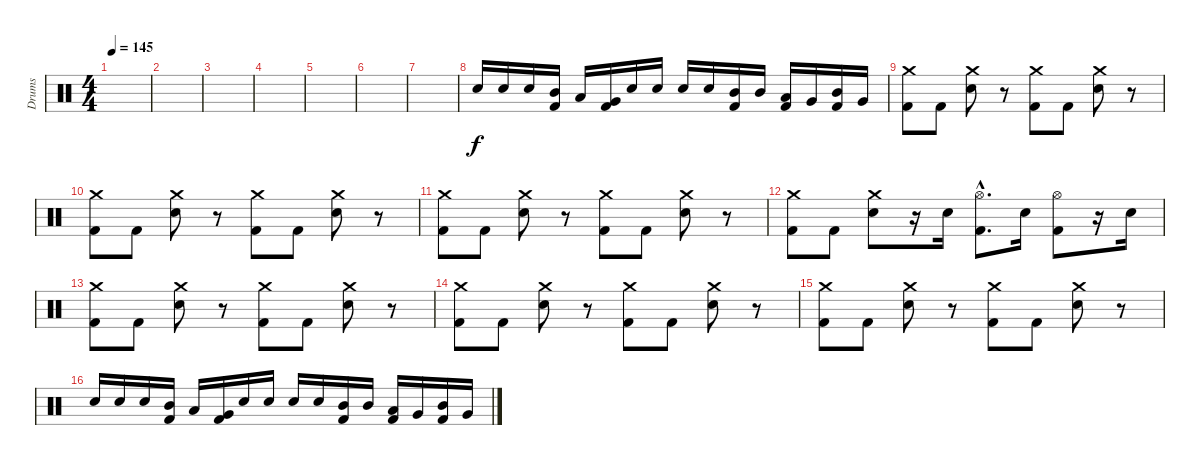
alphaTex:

\track ("Drums" "Drums") {instrument percussion}
\staff {score}
\articulation defaults
\ts (4 4)
\tempo 145
\clef neutral
\ks c
|
|
|
|
|
|
|
"Snare (hit) 2".16 "Snare (hit) 2".16 "Snare (hit) 2".16 ("Mid Tom (hit)" "Kick (hit) 2").16 "Low Tom (hit)".16 ("Very Low Tom (hit)" "Kick (hit) 2").16 "Snare (hit) 2".16 "Snare (hit) 2".16 "Snare (hit) 2".16 "Snare (hit) 2".16 ("Mid Tom (hit)" "Kick (hit) 2").16 "Mid Tom (hit)".16 ("Low Tom (hit)" "Kick (hit) 2").16 "Very Low Tom (hit)".16 ("Mid Tom (hit)" "Kick (hit) 2").16 "Very Low Tom (hit)".16 |
("Crash medium (hit)" "Kick (hit) 2").8 "Kick (hit) 2".8 ("Crash medium (hit)" "Snare (hit) 2").8 r.8 ("Crash medium (hit)" "Kick (hit) 2").8 "Kick (hit) 2".8 ("Crash medium (hit)" "Snare (hit) 2").8 r.8 |
("Crash medium (hit)" "Kick (hit) 2").8 "Kick (hit) 2".8 ("Crash medium (hit)" "Snare (hit) 2").8 r.8 ("Crash medium (hit)" "Kick (hit) 2").8 "Kick (hit) 2".8 ("Crash medium (hit)" "Snare (hit) 2").8 r.8 |
("Crash medium (hit)" "Kick (hit) 2").8 "Kick (hit) 2".8 ("Crash medium (hit)" "Snare (hit) 2").8 r.8 ("Crash medium (hit)" "Kick (hit) 2").8 "Kick (hit) 2".8 ("Crash medium (hit)" "Snare (hit) 2").8 r.8 |
("Crash medium (hit)" "Kick (hit) 2").8 "Kick (hit) 2".8 ("Crash medium (hit)" "Snare (hit) 2").8 r.16 "Snare (hit) 2".16 ("Hi-Hat (open)"{hac} "Kick (hit) 2"{hac}).8{d} "Snare (hit) 2".16 ("Hi-Hat (open)" "Kick (hit) 2").8 r.16 "Snare (hit) 2".16 |
("Crash medium (hit)" "Kick (hit) 2").8 "Kick (hit) 2".8 ("Crash medium (hit)" "Snare (hit) 2").8 r.8 ("Crash medium (hit)" "Kick (hit) 2").8 "Kick (hit) 2".8 ("Crash medium (hit)" "Snare (hit) 2").8 r.8 |
("Crash medium (hit)" "Kick (hit) 2").8 "Kick (hit) 2".8 ("Crash medium (hit)" "Snare (hit) 2").8 r.8 ("Crash medium (hit)" "Kick (hit) 2").8 "Kick (hit) 2".8 ("Crash medium (hit)" "Snare (hit) 2").8 r.8 |
("Crash medium (hit)" "Kick (hit) 2").8 "Kick (hit) 2".8 ("Crash medium (hit)" "Snare (hit) 2").8 r.8 ("Crash medium (hit)" "Kick (hit) 2").8 "Kick (hit) 2".8 ("Crash medium (hit)" "Snare (hit) 2").8 r.8 |
"Snare (hit) 2".16 "Snare (hit) 2".16 "Snare (hit) 2".16 ("Mid Tom (hit)" "Kick (hit) 2").16 "Low Tom (hit)".16 ("Very Low Tom (hit)" "Kick (hit) 2").16 "Snare (hit) 2".16 "Snare (hit) 2".16 "Snare (hit) 2".16 "Snare (hit) 2".16 ("Mid Tom (hit)" "Kick (hit) 2").16 "Mid Tom (hit)".16 ("Low Tom (hit)" "Kick (hit) 2").16 "Very Low Tom (hit)".16 ("Mid Tom (hit)" "Kick (hit) 2").16 "Very Low Tom (hit)".16
